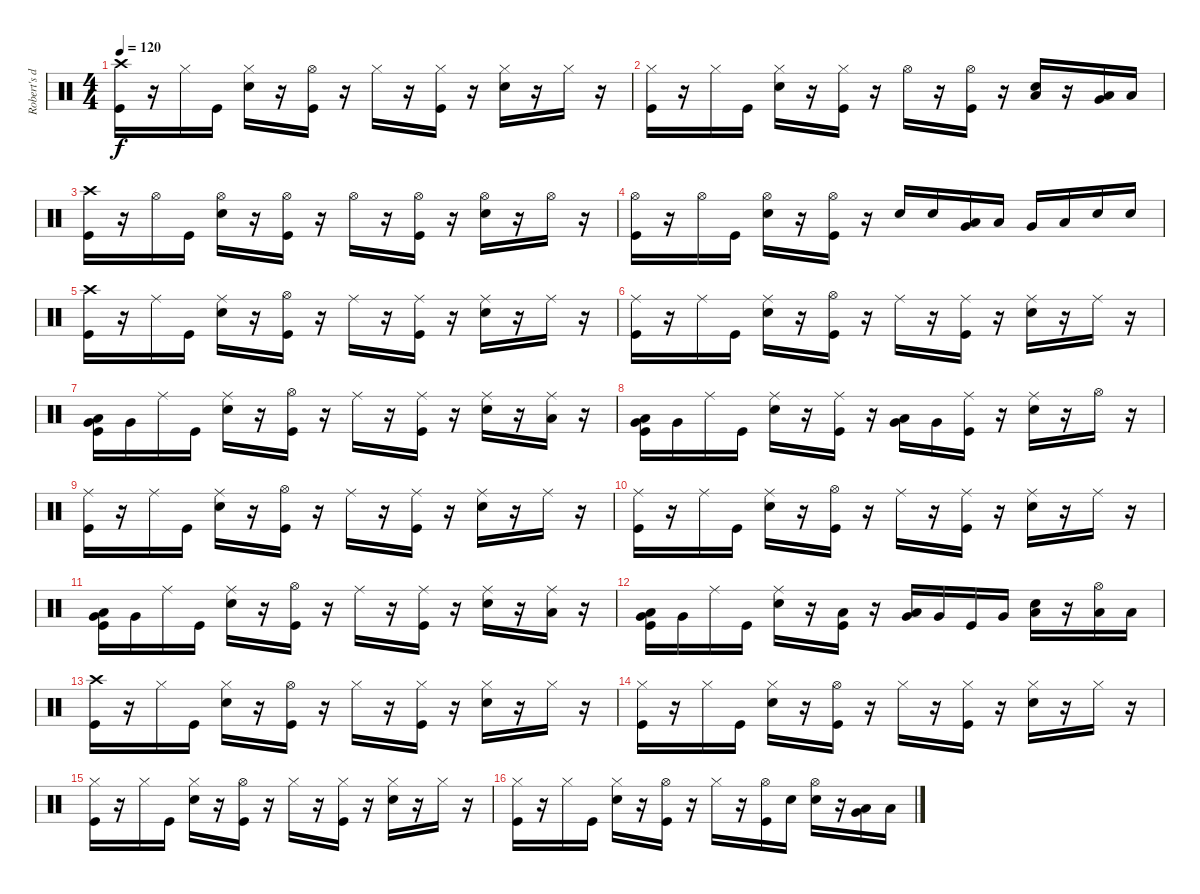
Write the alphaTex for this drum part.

\track ("Robert's drums" "Robert's d") {instrument percussion}
\staff {score}
\articulation defaults
\ts (4 4)
\tempo 120
\clef neutral
\ks c
("Crash high (hit)" "Kick (hit)").16{dy f} r.16 "Hi-Hat (closed)".16 "Kick (hit)".16 ("Hi-Hat (closed)" "Electric Snare (hit)").16 r.16 ("Kick (hit)" "Hi-Hat (open)").16 r.16 "Hi-Hat (closed)".16 r.16 ("Hi-Hat (closed)" "Kick (hit)").16 r.16 ("Electric Snare (hit)" "Hi-Hat (closed)").16 r.16 "Hi-Hat (closed)".16 r.16 |
("Hi-Hat (closed)" "Kick (hit)").16 r.16 "Hi-Hat (closed)".16 "Kick (hit)".16 ("Electric Snare (hit)" "Hi-Hat (closed)").16 r.16 ("Hi-Hat (closed)" "Kick (hit)").16 r.16 "Hi-Hat (open)".16 r.16 ("Hi-Hat (open)" "Kick (hit)").16 r.16 ("Low Floor Tom (hit)" "Electric Snare (hit)").16 r.16 ("Very Low Tom (hit)" "Low Floor Tom (hit)").16 "Low Floor Tom (hit)".16 |
("Crash high (hit)" "Kick (hit)").16 r.16 "Hi-Hat (open)".16 "Kick (hit)".16 ("Hi-Hat (open)" "Electric Snare (hit)").16 r.16 ("Kick (hit)" "Hi-Hat (open)").16 r.16 "Hi-Hat (open)".16 r.16 ("Hi-Hat (open)" "Kick (hit)").16 r.16 ("Hi-Hat (open)" "Electric Snare (hit)").16 r.16 "Hi-Hat (open)".16 r.16 |
("Hi-Hat (open)" "Kick (hit)").16 r.16 "Hi-Hat (open)".16 "Kick (hit)".16 ("Hi-Hat (open)" "Electric Snare (hit)").16 r.16 ("Hi-Hat (open)" "Kick (hit)").16 r.16 "Electric Snare (hit)".16 "Electric Snare (hit)".16 ("Low Tom (hit)" "Very Low Tom (hit)").16 "Low Tom (hit)".16 "Very Low Tom (hit)".16 "Low Floor Tom (hit)".16 "Electric Snare (hit)".16 "Electric Snare (hit)".16 |
("Crash high (hit)" "Kick (hit)").16 r.16 "Ride (middle)".16 "Kick (hit)".16 ("Ride (middle)" "Electric Snare (hit)").16 r.16 ("Hi-Hat (open)" "Kick (hit)").16 r.16 "Ride (middle)".16 r.16 ("Kick (hit)" "Ride (middle)").16 r.16 ("Ride (middle)" "Electric Snare (hit)").16 r.16 "Ride (middle)".16 r.16 |
("Ride (middle)" "Kick (hit)").16 r.16 "Ride (middle)".16 "Kick (hit)".16 ("Ride (middle)" "Electric Snare (hit)").16 r.16 ("Hi-Hat (open)" "Kick (hit)").16 r.16 "Ride (middle)".16 r.16 ("Ride (middle)" "Kick (hit)").16 r.16 ("Ride (middle)" "Electric Snare (hit)").16 r.16 "Ride (middle)".16 r.16 |
("Very Low Tom (hit)" "Low Tom (hit)" "Kick (hit)").16 "Very Low Tom (hit)".16 "Ride (middle)".16 "Kick (hit)".16 ("Ride (middle)" "Electric Snare (hit)").16 r.16 ("Hi-Hat (open)" "Kick (hit)").16 r.16 "Ride (middle)".16 r.16 ("Ride (middle)" "Kick (hit)").16 r.16 ("Electric Snare (hit)" "Ride (middle)").16 r.16 ("Low Floor Tom (hit)" "Ride (middle)").16 r.16 |
("Very Low Tom (hit)" "Low Tom (hit)" "Kick (hit)").16 "Very Low Tom (hit)".16 "Ride (middle)".16 "Kick (hit)".16 ("Electric Snare (hit)" "Ride (middle)").16 r.16 ("Ride (middle)" "Kick (hit)").16 r.16 ("Very Low Tom (hit)" "Low Tom (hit)").16 "Very Low Tom (hit)".16 ("Kick (hit)" "Ride (middle)").16 r.16 ("Ride (middle)" "Electric Snare (hit)").16 r.16 "Hi-Hat (open)".16 r.16 |
("Ride (middle)" "Kick (hit)").16 r.16 "Ride (middle)".16 "Kick (hit)".16 ("Ride (middle)" "Electric Snare (hit)").16 r.16 ("Hi-Hat (open)" "Kick (hit)").16 r.16 "Ride (middle)".16 r.16 ("Kick (hit)" "Ride (middle)").16 r.16 ("Ride (middle)" "Electric Snare (hit)").16 r.16 "Ride (middle)".16 r.16 |
("Ride (middle)" "Kick (hit)").16 r.16 "Ride (middle)".16 "Kick (hit)".16 ("Ride (middle)" "Electric Snare (hit)").16 r.16 ("Hi-Hat (open)" "Kick (hit)").16 r.16 "Ride (middle)".16 r.16 ("Ride (middle)" "Kick (hit)").16 r.16 ("Ride (middle)" "Electric Snare (hit)").16 r.16 "Ride (middle)".16 r.16 |
("Very Low Tom (hit)" "Low Tom (hit)" "Kick (hit)").16 "Very Low Tom (hit)".16 "Ride (middle)".16 "Kick (hit)".16 ("Ride (middle)" "Electric Snare (hit)").16 r.16 ("Hi-Hat (open)" "Kick (hit)").16 r.16 "Ride (middle)".16 r.16 ("Ride (middle)" "Kick (hit)").16 r.16 ("Electric Snare (hit)" "Ride (middle)").16 r.16 ("Low Floor Tom (hit)" "Ride (middle)").16 r.16 |
("Very Low Tom (hit)" "Low Tom (hit)" "Kick (hit)").16 "Very Low Tom (hit)".16 "Ride (middle)".16 "Kick (hit)".16 ("Electric Snare (hit)" "Ride (middle)").16 r.16 ("Low Floor Tom (hit)" "Kick (hit)").16 r.16 ("Very Low Tom (hit)" "Low Tom (hit)").16 "Very Low Tom (hit)".16 "Kick (hit)".16 "Very Low Tom (hit)".16 ("Low Tom (hit)" "Electric Snare (hit)").16 r.16 ("Low Tom (hit)" "Hi-Hat (open)").16 "Low Tom (hit)".16 |
("Crash high (hit)" "Kick (hit)").16 r.16 "Hi-Hat (closed)".16 "Kick (hit)".16 ("Hi-Hat (closed)" "Electric Snare (hit)").16 r.16 ("Hi-Hat (open)" "Kick (hit)").16 r.16 "Hi-Hat (closed)".16 r.16 ("Kick (hit)" "Hi-Hat (closed)").16 r.16 ("Hi-Hat (closed)" "Electric Snare (hit)").16 r.16 "Hi-Hat (closed)".16 r.16 |
("Hi-Hat (closed)" "Kick (hit)").16 r.16 "Hi-Hat (closed)".16 "Kick (hit)".16 ("Hi-Hat (closed)" "Electric Snare (hit)").16 r.16 ("Hi-Hat (open)" "Kick (hit)").16 r.16 "Hi-Hat (closed)".16 r.16 ("Kick (hit)" "Hi-Hat (closed)").16 r.16 ("Electric Snare (hit)" "Hi-Hat (closed)").16 r.16 "Hi-Hat (closed)".16 r.16 |
("Kick (hit)" "Hi-Hat (closed)").16 r.16 "Hi-Hat (closed)".16 "Kick (hit)".16 ("Electric Snare (hit)" "Hi-Hat (closed)").16 r.16 ("Hi-Hat (open)" "Kick (hit)").16 r.16 "Hi-Hat (closed)".16 r.16 ("Hi-Hat (closed)" "Kick (hit)").16 r.16 ("Electric Snare (hit)" "Hi-Hat (closed)").16 r.16 "Hi-Hat (closed)".16 r.16 |
("Kick (hit)" "Hi-Hat (closed)").16 r.16 "Hi-Hat (closed)".16 "Kick (hit)".16 ("Hi-Hat (closed)" "Electric Snare (hit)").16 r.16 ("Hi-Hat (open)" "Kick (hit)").16 r.16 "Hi-Hat (closed)".16 r.16 ("Kick (hit)" "Hi-Hat (open)").16 "Electric Snare (hit)".16 ("Hi-Hat (open)" "Electric Snare (hit)").16 r.16 ("Low Floor Tom (hit)" "Very Low Tom (hit)").16 "Low Floor Tom (hit)".16
